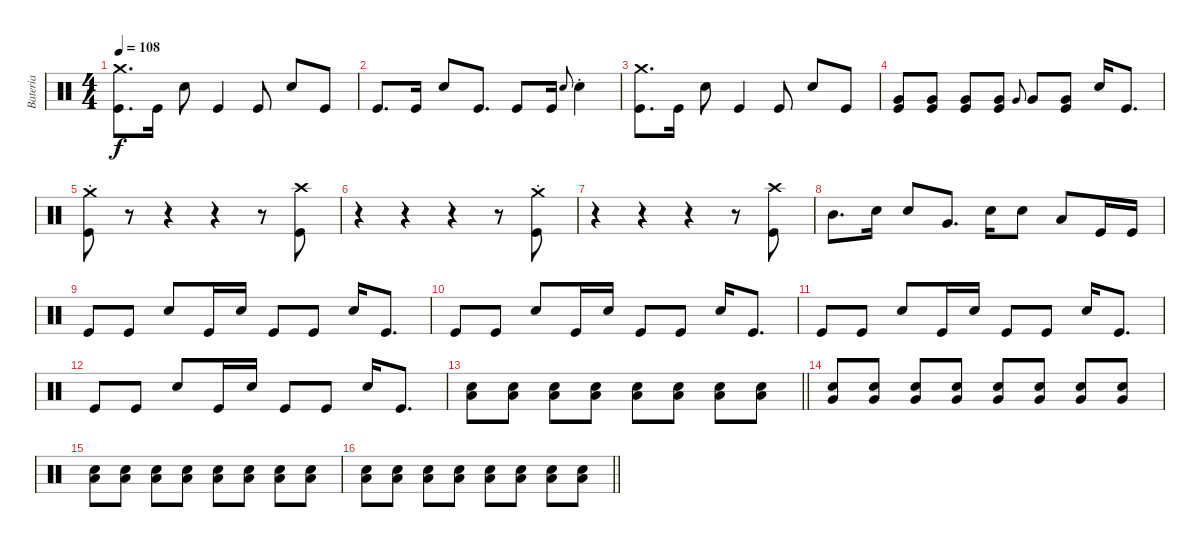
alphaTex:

\track ("Bateria" "Bateria") {instrument percussion}
\staff {score}
\articulation defaults
\ts (4 4)
\tempo 108
\clef neutral
\ks c
("Crash medium (hit)" "Kick (hit)").8{d dy f} "Kick (hit)".16 "Snare (hit) 2".8 "Kick (hit)".4 "Kick (hit)".8 "Snare (hit) 2".8 "Kick (hit)".8 |
"Kick (hit)".8{d} "Kick (hit)".16 "Snare (hit) 2".8 "Kick (hit)".8{d} "Kick (hit)".8 "Kick (hit)".16 "Snare (hit) 2".8{gr onbeat} "Snare (hit) 2"{st}.4 |
("Crash medium (hit)" "Kick (hit)").8{d} "Kick (hit)".16 "Snare (hit) 2".8 "Kick (hit)".4 "Kick (hit)".8 "Snare (hit) 2".8 "Kick (hit)".8 |
("Very Low Tom (hit)" "Kick (hit)").8 ("Very Low Tom (hit)" "Kick (hit)").8 ("Very Low Tom (hit)" "Kick (hit)").8 ("Very Low Tom (hit)" "Kick (hit)").8 "Very Low Tom (hit)".8{gr onbeat} "Very Low Tom (hit)".8 ("Very Low Tom (hit)" "Kick (hit)").8 "Snare (hit) 2".16 "Kick (hit)".8{d} |
("Crash medium (hit)" "Kick (hit)"{st}).8 r.8 r.4 r.4 r.8 ("Crash high (hit)" "Kick (hit)").8 |
r.4 r.4 r.4 r.8 ("Crash medium (hit)" "Kick (hit)"{st}).8 |
r.4 r.4 r.4 r.8 ("Crash high (hit)" "Kick (hit)").8 |
"Mid Tom (hit)".8{d} "Electric Snare (hit)".16 "Electric Snare (hit)".8 "Very Low Tom (hit)".8{d} "Electric Snare (hit)".16 "Electric Snare (hit)".8 "Low Floor Tom (hit)".8 "Kick (hit)".16 "Kick (hit)".16 |
"Kick (hit)".8 "Kick (hit)".8 "Snare (hit) 2".8 "Kick (hit)".16 "Snare (hit) 2".16 "Kick (hit)".8 "Kick (hit)".8 "Snare (hit) 2".16 "Kick (hit)".8{d} |
"Kick (hit)".8 "Kick (hit)".8 "Snare (hit) 2".8 "Kick (hit)".16 "Snare (hit) 2".16 "Kick (hit)".8 "Kick (hit)".8 "Snare (hit) 2".16 "Kick (hit)".8{d} |
"Kick (hit)".8 "Kick (hit)".8 "Snare (hit) 2".8 "Kick (hit)".16 "Snare (hit) 2".16 "Kick (hit)".8 "Kick (hit)".8 "Snare (hit) 2".16 "Kick (hit)".8{d} |
"Kick (hit)".8 "Kick (hit)".8 "Snare (hit) 2".8 "Kick (hit)".16 "Snare (hit) 2".16 "Kick (hit)".8 "Kick (hit)".8 "Snare (hit) 2".16 "Kick (hit)".8{d} |
\barLineRight lightlight
("Snare (hit) 2" "Low Tom (hit)").8 ("Snare (hit) 2" "Low Tom (hit)").8 ("Snare (hit) 2" "Low Tom (hit)").8 ("Snare (hit) 2" "Low Tom (hit)").8 ("Snare (hit) 2" "Low Tom (hit)").8 ("Snare (hit) 2" "Low Tom (hit)").8 ("Snare (hit) 2" "Low Tom (hit)").8 ("Snare (hit) 2" "Low Tom (hit)").8 |
("Snare (hit) 2" "Very Low Tom (hit)").8 ("Snare (hit) 2" "Very Low Tom (hit)").8 ("Snare (hit) 2" "Very Low Tom (hit)").8 ("Snare (hit) 2" "Very Low Tom (hit)").8 ("Snare (hit) 2" "Very Low Tom (hit)").8 ("Snare (hit) 2" "Very Low Tom (hit)").8 ("Snare (hit) 2" "Very Low Tom (hit)").8 ("Snare (hit) 2" "Very Low Tom (hit)").8 |
("Snare (hit) 2" "Low Floor Tom (hit)").8 ("Snare (hit) 2" "Low Floor Tom (hit)").8 ("Snare (hit) 2" "Low Floor Tom (hit)").8 ("Snare (hit) 2" "Low Floor Tom (hit)").8 ("Snare (hit) 2" "Low Floor Tom (hit)").8 ("Snare (hit) 2" "Low Floor Tom (hit)").8 ("Snare (hit) 2" "Low Floor Tom (hit)").8 ("Snare (hit) 2" "Low Floor Tom (hit)").8 |
\barLineRight lightlight
("Snare (hit) 2" "Low Floor Tom (hit)").8 ("Snare (hit) 2" "Low Floor Tom (hit)").8 ("Snare (hit) 2" "Low Floor Tom (hit)").8 ("Snare (hit) 2" "Low Floor Tom (hit)").8 ("Snare (hit) 2" "Low Floor Tom (hit)").8 ("Snare (hit) 2" "Low Floor Tom (hit)").8 ("Snare (hit) 2" "Low Floor Tom (hit)").8 ("Snare (hit) 2" "Low Floor Tom (hit)").8
